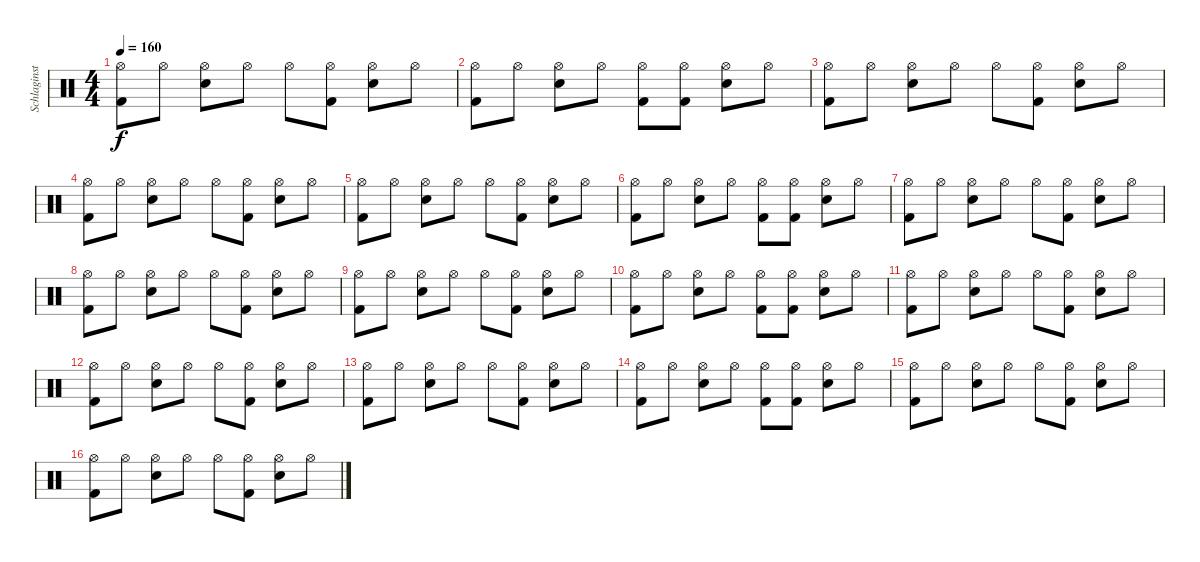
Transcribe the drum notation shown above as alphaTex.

\track ("Schlaginstrumente - Auswahl" "Schlaginst") {instrument percussion}
\staff {score}
\articulation defaults
\ts (4 4)
\tempo 160
\clef neutral
\ks c
("Kick (hit) 2" "Hi-Hat (open)").8{dy f} "Hi-Hat (open)".8 ("Snare (hit) 2" "Hi-Hat (open)").8 "Hi-Hat (open)".8 "Hi-Hat (open)".8 ("Kick (hit) 2" "Hi-Hat (open)").8 ("Snare (hit) 2" "Hi-Hat (open)").8 "Hi-Hat (open)".8 |
("Kick (hit) 2" "Hi-Hat (open)").8 "Hi-Hat (open)".8 ("Snare (hit) 2" "Hi-Hat (open)").8 "Hi-Hat (open)".8 ("Kick (hit) 2" "Hi-Hat (open)").8 ("Kick (hit) 2" "Hi-Hat (open)").8 ("Snare (hit) 2" "Hi-Hat (open)").8 "Hi-Hat (open)".8 |
("Kick (hit) 2" "Hi-Hat (open)").8 "Hi-Hat (open)".8 ("Snare (hit) 2" "Hi-Hat (open)").8 "Hi-Hat (open)".8 "Hi-Hat (open)".8 ("Kick (hit) 2" "Hi-Hat (open)").8 ("Snare (hit) 2" "Hi-Hat (open)").8 "Hi-Hat (open)".8 |
("Kick (hit) 2" "Hi-Hat (open)").8 "Hi-Hat (open)".8 ("Snare (hit) 2" "Hi-Hat (open)").8 "Hi-Hat (open)".8 "Hi-Hat (open)".8 ("Kick (hit) 2" "Hi-Hat (open)").8 ("Snare (hit) 2" "Hi-Hat (open)").8 "Hi-Hat (open)".8 |
("Kick (hit) 2" "Hi-Hat (open)").8 "Hi-Hat (open)".8 ("Snare (hit) 2" "Hi-Hat (open)").8 "Hi-Hat (open)".8 "Hi-Hat (open)".8 ("Kick (hit) 2" "Hi-Hat (open)").8 ("Snare (hit) 2" "Hi-Hat (open)").8 "Hi-Hat (open)".8 |
("Kick (hit) 2" "Hi-Hat (open)").8 "Hi-Hat (open)".8 ("Snare (hit) 2" "Hi-Hat (open)").8 "Hi-Hat (open)".8 ("Kick (hit) 2" "Hi-Hat (open)").8 ("Kick (hit) 2" "Hi-Hat (open)").8 ("Snare (hit) 2" "Hi-Hat (open)").8 "Hi-Hat (open)".8 |
("Kick (hit) 2" "Hi-Hat (open)").8 "Hi-Hat (open)".8 ("Snare (hit) 2" "Hi-Hat (open)").8 "Hi-Hat (open)".8 "Hi-Hat (open)".8 ("Kick (hit) 2" "Hi-Hat (open)").8 ("Snare (hit) 2" "Hi-Hat (open)").8 "Hi-Hat (open)".8 |
("Kick (hit) 2" "Hi-Hat (open)").8 "Hi-Hat (open)".8 ("Snare (hit) 2" "Hi-Hat (open)").8 "Hi-Hat (open)".8 "Hi-Hat (open)".8 ("Kick (hit) 2" "Hi-Hat (open)").8 ("Snare (hit) 2" "Hi-Hat (open)").8 "Hi-Hat (open)".8 |
("Kick (hit) 2" "Hi-Hat (open)").8 "Hi-Hat (open)".8 ("Snare (hit) 2" "Hi-Hat (open)").8 "Hi-Hat (open)".8 "Hi-Hat (open)".8 ("Kick (hit) 2" "Hi-Hat (open)").8 ("Snare (hit) 2" "Hi-Hat (open)").8 "Hi-Hat (open)".8 |
("Kick (hit) 2" "Hi-Hat (open)").8 "Hi-Hat (open)".8 ("Snare (hit) 2" "Hi-Hat (open)").8 "Hi-Hat (open)".8 ("Kick (hit) 2" "Hi-Hat (open)").8 ("Kick (hit) 2" "Hi-Hat (open)").8 ("Snare (hit) 2" "Hi-Hat (open)").8 "Hi-Hat (open)".8 |
("Kick (hit) 2" "Hi-Hat (open)").8 "Hi-Hat (open)".8 ("Snare (hit) 2" "Hi-Hat (open)").8 "Hi-Hat (open)".8 "Hi-Hat (open)".8 ("Kick (hit) 2" "Hi-Hat (open)").8 ("Snare (hit) 2" "Hi-Hat (open)").8 "Hi-Hat (open)".8 |
("Kick (hit) 2" "Hi-Hat (open)").8 "Hi-Hat (open)".8 ("Snare (hit) 2" "Hi-Hat (open)").8 "Hi-Hat (open)".8 "Hi-Hat (open)".8 ("Kick (hit) 2" "Hi-Hat (open)").8 ("Snare (hit) 2" "Hi-Hat (open)").8 "Hi-Hat (open)".8 |
("Kick (hit) 2" "Hi-Hat (open)").8 "Hi-Hat (open)".8 ("Snare (hit) 2" "Hi-Hat (open)").8 "Hi-Hat (open)".8 "Hi-Hat (open)".8 ("Kick (hit) 2" "Hi-Hat (open)").8 ("Snare (hit) 2" "Hi-Hat (open)").8 "Hi-Hat (open)".8 |
("Kick (hit) 2" "Hi-Hat (open)").8 "Hi-Hat (open)".8 ("Snare (hit) 2" "Hi-Hat (open)").8 "Hi-Hat (open)".8 ("Kick (hit) 2" "Hi-Hat (open)").8 ("Kick (hit) 2" "Hi-Hat (open)").8 ("Snare (hit) 2" "Hi-Hat (open)").8 "Hi-Hat (open)".8 |
("Kick (hit) 2" "Hi-Hat (open)").8 "Hi-Hat (open)".8 ("Snare (hit) 2" "Hi-Hat (open)").8 "Hi-Hat (open)".8 "Hi-Hat (open)".8 ("Kick (hit) 2" "Hi-Hat (open)").8 ("Snare (hit) 2" "Hi-Hat (open)").8 "Hi-Hat (open)".8 |
("Kick (hit) 2" "Hi-Hat (open)").8 "Hi-Hat (open)".8 ("Snare (hit) 2" "Hi-Hat (open)").8 "Hi-Hat (open)".8 "Hi-Hat (open)".8 ("Kick (hit) 2" "Hi-Hat (open)").8 ("Snare (hit) 2" "Hi-Hat (open)").8 "Hi-Hat (open)".8
